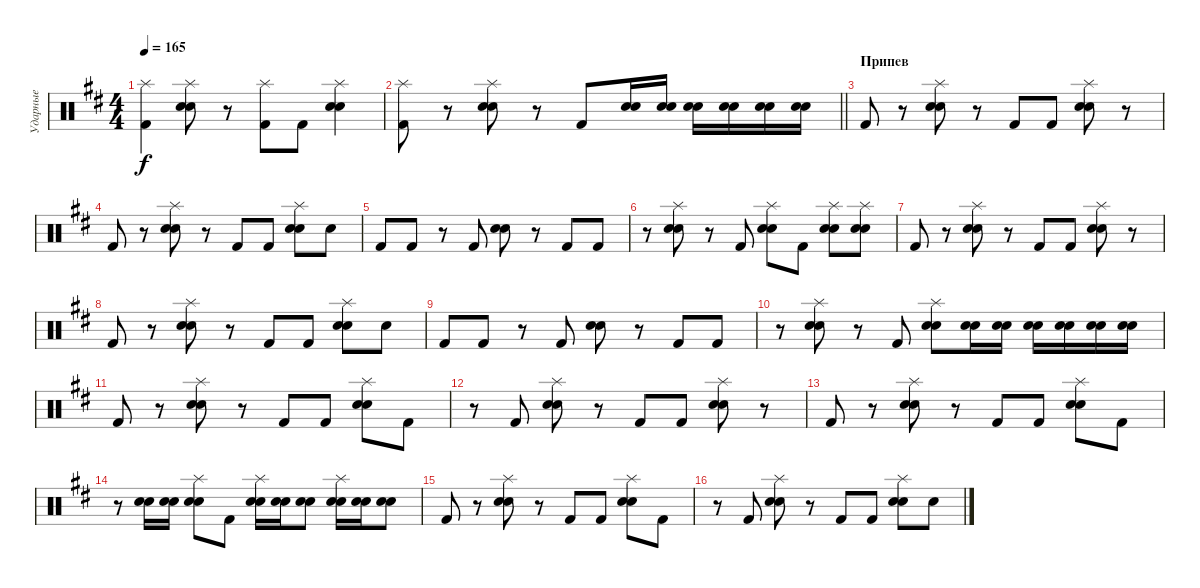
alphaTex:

\track ("Ударные" "Ударные") {instrument percussion}
\staff {score}
\articulation defaults
\ts (4 4)
\tempo 165
\clef neutral
\ks bminor
("Splash (hit)" "Kick (hit) 2").4{dy f} ("Splash (hit)" "Electric Snare (hit)" "Snare (hit) 2").8 r.8 ("Splash (hit)" "Kick (hit) 2").8 "Kick (hit) 2".8 ("Splash (hit)" "Electric Snare (hit)" "Snare (hit) 2").4 |
\barLineRight lightlight
("Splash (hit)" "Kick (hit) 2").8 r.8 ("Splash (hit)" "Electric Snare (hit)" "Snare (hit) 2").8 r.8 "Kick (hit) 2".8 ("Electric Snare (hit)" "Snare (hit) 2").16 ("Electric Snare (hit)" "Snare (hit) 2").16 ("Electric Snare (hit)" "Snare (hit) 2").16 ("Electric Snare (hit)" "Snare (hit) 2").16 ("Electric Snare (hit)" "Snare (hit) 2").16 ("Electric Snare (hit)" "Snare (hit) 2").16 |
\section ("" "Припев")
"Kick (hit) 2".8 r.8 ("Splash (hit)" "Electric Snare (hit)" "Snare (hit) 2").8 r.8 "Kick (hit) 2".8 "Kick (hit) 2".8 ("Splash (hit)" "Electric Snare (hit)" "Snare (hit) 2").8 r.8 |
"Kick (hit) 2".8 r.8 ("Splash (hit)" "Electric Snare (hit)" "Snare (hit) 2").8 r.8 "Kick (hit) 2".8 "Kick (hit) 2".8 ("Splash (hit)" "Electric Snare (hit)" "Snare (hit) 2").8 "Electric Snare (hit)".8 |
"Kick (hit) 2".8 "Kick (hit) 2".8 r.8 "Kick (hit) 2".8 ("Electric Snare (hit)" "Snare (hit) 2").8 r.8 "Kick (hit) 2".8 "Kick (hit) 2".8 |
r.8 ("Splash (hit)" "Electric Snare (hit)" "Snare (hit) 2").8 r.8 "Kick (hit) 2".8 ("Splash (hit)" "Electric Snare (hit)" "Snare (hit) 2").8 "Kick (hit) 2".8 ("Splash (hit)" "Electric Snare (hit)" "Snare (hit) 2").8 ("Splash (hit)" "Electric Snare (hit)" "Snare (hit) 2").8 |
"Kick (hit) 2".8 r.8 ("Splash (hit)" "Electric Snare (hit)" "Snare (hit) 2").8 r.8 "Kick (hit) 2".8 "Kick (hit) 2".8 ("Splash (hit)" "Electric Snare (hit)" "Snare (hit) 2").8 r.8 |
"Kick (hit) 2".8 r.8 ("Splash (hit)" "Electric Snare (hit)" "Snare (hit) 2").8 r.8 "Kick (hit) 2".8 "Kick (hit) 2".8 ("Splash (hit)" "Electric Snare (hit)" "Snare (hit) 2").8 "Electric Snare (hit)".8 |
"Kick (hit) 2".8 "Kick (hit) 2".8 r.8 "Kick (hit) 2".8 ("Electric Snare (hit)" "Snare (hit) 2").8 r.8 "Kick (hit) 2".8 "Kick (hit) 2".8 |
r.8 ("Splash (hit)" "Electric Snare (hit)" "Snare (hit) 2").8 r.8 "Kick (hit) 2".8 ("Splash (hit)" "Electric Snare (hit)" "Snare (hit) 2").8 ("Electric Snare (hit)" "Snare (hit) 2").16 ("Electric Snare (hit)" "Snare (hit) 2").16 ("Electric Snare (hit)" "Snare (hit) 2").16 ("Electric Snare (hit)" "Snare (hit) 2").16 ("Electric Snare (hit)" "Snare (hit) 2").16 ("Electric Snare (hit)" "Snare (hit) 2").16 |
"Kick (hit) 2".8 r.8 ("Splash (hit)" "Electric Snare (hit)" "Snare (hit) 2").8 r.8 "Kick (hit) 2".8 "Kick (hit) 2".8 ("Splash (hit)" "Electric Snare (hit)" "Snare (hit) 2").8 "Kick (hit) 2".8 |
r.8 "Kick (hit) 2".8 ("Splash (hit)" "Electric Snare (hit)" "Snare (hit) 2").8 r.8 "Kick (hit) 2".8 "Kick (hit) 2".8 ("Splash (hit)" "Electric Snare (hit)" "Snare (hit) 2").8 r.8 |
"Kick (hit) 2".8 r.8 ("Splash (hit)" "Electric Snare (hit)" "Snare (hit) 2").8 r.8 "Kick (hit) 2".8 "Kick (hit) 2".8 ("Splash (hit)" "Electric Snare (hit)" "Snare (hit) 2").8 "Kick (hit) 2".8 |
r.8 ("Electric Snare (hit)" "Snare (hit) 2").16 ("Electric Snare (hit)" "Snare (hit) 2").16 ("Splash (hit)" "Electric Snare (hit)" "Snare (hit) 2").8 "Kick (hit) 2".8 ("Splash (hit)" "Electric Snare (hit)" "Snare (hit) 2").16 ("Electric Snare (hit)" "Snare (hit) 2").16 ("Electric Snare (hit)" "Snare (hit) 2").8 ("Splash (hit)" "Electric Snare (hit)" "Snare (hit) 2").16 ("Electric Snare (hit)" "Snare (hit) 2").16 ("Electric Snare (hit)" "Snare (hit) 2").8 |
"Kick (hit) 2".8 r.8 ("Splash (hit)" "Electric Snare (hit)" "Snare (hit) 2").8 r.8 "Kick (hit) 2".8 "Kick (hit) 2".8 ("Splash (hit)" "Electric Snare (hit)" "Snare (hit) 2").8 "Kick (hit) 2".8 |
r.8 "Kick (hit) 2".8 ("Splash (hit)" "Electric Snare (hit)" "Snare (hit) 2").8 r.8 "Kick (hit) 2".8 "Kick (hit) 2".8 ("Splash (hit)" "Electric Snare (hit)" "Snare (hit) 2").8 "Electric Snare (hit)".8
